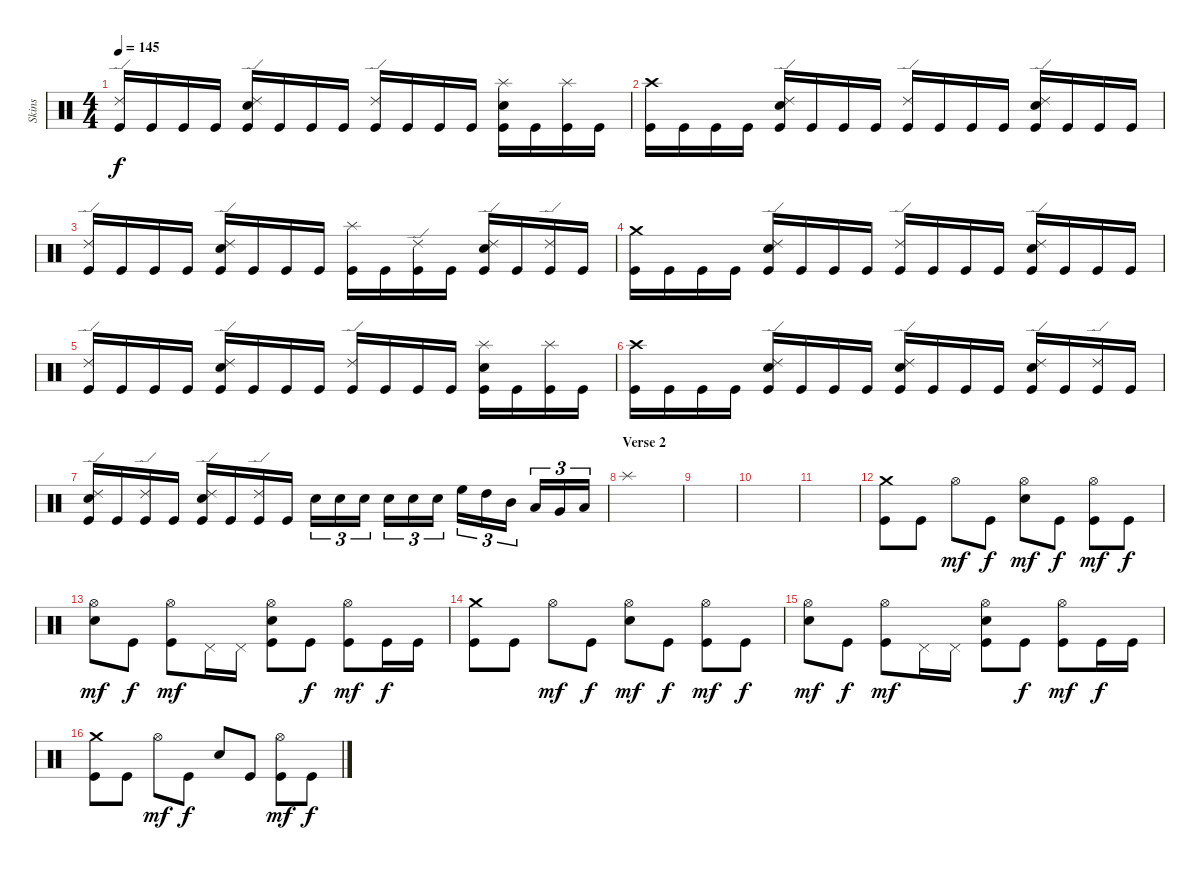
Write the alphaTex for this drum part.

\track ("Skins" "Skins") {instrument percussion}
\staff {score}
\articulation defaults
\ts (4 4)
\tempo 145
\clef neutral
\ks c
("Ride (edge) 2" "Kick (hit)").16{dy f} "Kick (hit)".16 "Kick (hit)".16 "Kick (hit)".16 ("Ride (edge) 2" "Snare (hit) 2" "Kick (hit)").16 "Kick (hit)".16 "Kick (hit)".16 "Kick (hit)".16 ("Ride (edge) 2" "Kick (hit)").16 "Kick (hit)".16 "Kick (hit)".16 "Kick (hit)".16 ("Splash (hit)" "Snare (hit) 2" "Kick (hit)").16 "Kick (hit)".16 ("Splash (hit)" "Kick (hit)").16 "Kick (hit)".16 |
("Crash high (hit)" "Kick (hit)").16 "Kick (hit)".16 "Kick (hit)".16 "Kick (hit)".16 ("Ride (edge) 2" "Snare (hit) 2" "Kick (hit)").16 "Kick (hit)".16 "Kick (hit)".16 "Kick (hit)".16 ("Ride (edge) 2" "Kick (hit)").16 "Kick (hit)".16 "Kick (hit)".16 "Kick (hit)".16 ("Ride (edge) 2" "Snare (hit) 2" "Kick (hit)").16 "Kick (hit)".16 "Kick (hit)".16 "Kick (hit)".16 |
("Ride (edge) 2" "Kick (hit)").16 "Kick (hit)".16 "Kick (hit)".16 "Kick (hit)".16 ("Ride (edge) 2" "Snare (hit) 2" "Kick (hit)").16 "Kick (hit)".16 "Kick (hit)".16 "Kick (hit)".16 ("Splash (hit)" "Kick (hit)").16 "Kick (hit)".16 ("Ride (edge) 2" "Kick (hit)").16 "Kick (hit)".16 ("Ride (edge) 2" "Snare (hit) 2" "Kick (hit)").16 "Kick (hit)".16 ("Ride (edge) 2" "Kick (hit)").16 "Kick (hit)".16 |
("Crash medium (hit)" "Kick (hit)").16 "Kick (hit)".16 "Kick (hit)".16 "Kick (hit)".16 ("Ride (edge) 2" "Snare (hit) 2" "Kick (hit)").16 "Kick (hit)".16 "Kick (hit)".16 "Kick (hit)".16 ("Ride (edge) 2" "Kick (hit)").16 "Kick (hit)".16 "Kick (hit)".16 "Kick (hit)".16 ("Ride (edge) 2" "Snare (hit) 2" "Kick (hit)").16 "Kick (hit)".16 "Kick (hit)".16 "Kick (hit)".16 |
("Ride (edge) 2" "Kick (hit)").16 "Kick (hit)".16 "Kick (hit)".16 "Kick (hit)".16 ("Ride (edge) 2" "Snare (hit) 2" "Kick (hit)").16 "Kick (hit)".16 "Kick (hit)".16 "Kick (hit)".16 ("Ride (edge) 2" "Kick (hit)").16 "Kick (hit)".16 "Kick (hit)".16 "Kick (hit)".16 ("Splash (hit)" "Snare (hit) 2" "Kick (hit)").16 "Kick (hit)".16 ("Splash (hit)" "Kick (hit)").16 "Kick (hit)".16 |
("Crash high (hit)" "Kick (hit)").16 "Kick (hit)".16 "Kick (hit)".16 "Kick (hit)".16 ("Ride (edge) 2" "Snare (hit) 2" "Kick (hit)").16 "Kick (hit)".16 "Kick (hit)".16 "Kick (hit)".16 ("Ride (edge) 2" "Snare (hit) 2" "Kick (hit)").16 "Kick (hit)".16 "Kick (hit)".16 "Kick (hit)".16 ("Ride (edge) 2" "Snare (hit) 2" "Kick (hit)").16 "Kick (hit)".16 ("Ride (edge) 2" "Kick (hit)").16 "Kick (hit)".16 |
("Ride (edge) 2" "Snare (hit) 2" "Kick (hit)").16 "Kick (hit)".16 ("Ride (edge) 2" "Kick (hit)").16 "Kick (hit)".16 ("Ride (edge) 2" "Snare (hit) 2" "Kick (hit)").16 "Kick (hit)".16 ("Ride (edge) 2" "Kick (hit)").16 "Kick (hit)".16 "Electric Snare (hit)".16{tu (3 2)} "Electric Snare (hit)".16{tu (3 2)} "Electric Snare (hit)".16{tu (3 2)} "Snare (hit) 2".16{tu (3 2)} "Snare (hit) 2".16{tu (3 2)} "Snare (hit) 2".16{tu (3 2)} "High Floor Tom (hit)".16{tu (3 2)} "High Tom (hit)".16{tu (3 2)} "Mid Tom (hit)".16{tu (3 2)} "Low Tom (hit)".16{tu (3 2)} "Very Low Tom (hit)".16{tu (3 2)} "Low Floor Tom (hit)".16{tu (3 2)} |
\section ("" "Verse 2")
"Splash (hit)".1 |
|
|
|
("Crash medium (hit)" "Kick (hit)").8 "Kick (hit)".8 "Hi-Hat (open)".8{dy mf} "Kick (hit)".8{dy f} ("Hi-Hat (open)" "Electric Snare (hit)").8{dy mf} "Kick (hit)".8{dy f} ("Hi-Hat (open)" "Kick (hit)").8{dy mf} "Kick (hit)".8{dy f} |
("Hi-Hat (open)" "Electric Snare (hit)").8{dy mf} "Kick (hit)".8{dy f} ("Hi-Hat (open)" "Kick (hit)").8{dy mf} "Pedal Hi-Hat (hit)".16 "Pedal Hi-Hat (hit)".16 ("Hi-Hat (open)" "Electric Snare (hit)" "Kick (hit)").8 "Kick (hit)".8{dy f} ("Hi-Hat (open)" "Kick (hit)").8{dy mf} "Kick (hit)".16{dy f} "Kick (hit)".16 |
("Crash medium (hit)" "Kick (hit)").8 "Kick (hit)".8 "Hi-Hat (open)".8{dy mf} "Kick (hit)".8{dy f} ("Hi-Hat (open)" "Electric Snare (hit)").8{dy mf} "Kick (hit)".8{dy f} ("Hi-Hat (open)" "Kick (hit)").8{dy mf} "Kick (hit)".8{dy f} |
("Hi-Hat (open)" "Electric Snare (hit)").8{dy mf} "Kick (hit)".8{dy f} ("Hi-Hat (open)" "Kick (hit)").8{dy mf} "Pedal Hi-Hat (hit)".16 "Pedal Hi-Hat (hit)".16 ("Hi-Hat (open)" "Electric Snare (hit)" "Kick (hit)").8 "Kick (hit)".8{dy f} ("Hi-Hat (open)" "Kick (hit)").8{dy mf} "Kick (hit)".16{dy f} "Kick (hit)".16 |
("Crash medium (hit)" "Kick (hit)").8 "Kick (hit)".8 "Hi-Hat (open)".8{dy mf} "Kick (hit)".8{dy f} "Electric Snare (hit)".8 "Kick (hit)".8 ("Hi-Hat (open)" "Kick (hit)").8{dy mf} "Kick (hit)".8{dy f}
